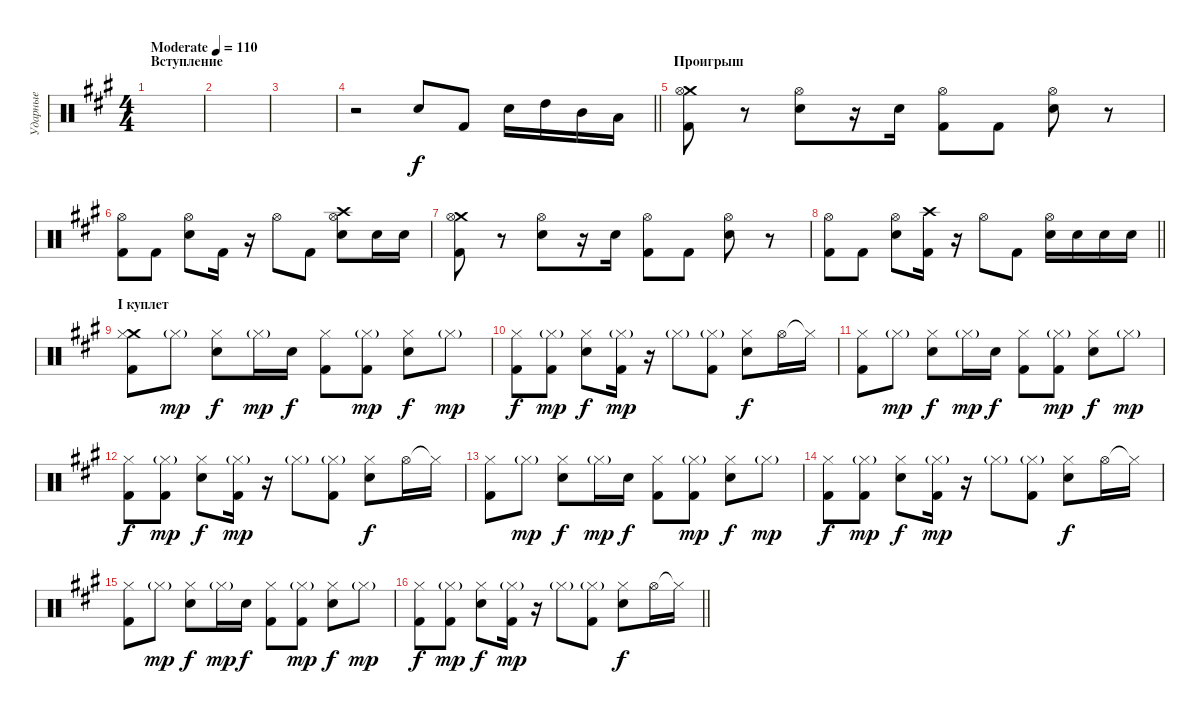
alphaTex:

\track ("Ударные" "Ударные") {instrument percussion}
\staff {score}
\articulation defaults
\ts (4 4)
\section ("" "Вступление")
\tempo (110 "Moderate")
\clef neutral
\ks f#minor
|
|
|
\barLineRight lightlight
r.2 "Electric Snare (hit)".8 "Kick (hit) 2".8 "Electric Snare (hit)".16 "High Tom (hit)".16 "Mid Tom (hit)".16 "Low Tom (hit)".16 |
\section ("" "Проигрыш")
("Crash medium (hit)" "Kick (hit) 2" "Hi-Hat (open)").8 r.8 ("Electric Snare (hit)" "Hi-Hat (open)").8 r.16 "Electric Snare (hit)".16 ("Kick (hit) 2" "Hi-Hat (open)").8 "Kick (hit) 2".8 ("Electric Snare (hit)" "Hi-Hat (open)").8 r.8 |
("Kick (hit) 2" "Hi-Hat (open)").8 "Kick (hit) 2".8 ("Electric Snare (hit)" "Hi-Hat (open)").8 "Kick (hit) 2".16 r.16 "Hi-Hat (open)".8 "Kick (hit) 2".8 ("Crash high (hit)" "Electric Snare (hit)" "Hi-Hat (open)").8 "Electric Snare (hit)".16 "Electric Snare (hit)".16 |
("Crash medium (hit)" "Kick (hit) 2" "Hi-Hat (open)").8 r.8 ("Electric Snare (hit)" "Hi-Hat (open)").8 r.16 "Electric Snare (hit)".16 ("Kick (hit) 2" "Hi-Hat (open)").8 "Kick (hit) 2".8 ("Electric Snare (hit)" "Hi-Hat (open)").8 r.8 |
\barLineRight lightlight
("Kick (hit) 2" "Hi-Hat (open)").8 "Kick (hit) 2".8 ("Electric Snare (hit)" "Hi-Hat (open)").8 ("Crash high (hit)" "Kick (hit) 2").16 r.16 "Hi-Hat (open)".8 "Kick (hit) 2".8 ("Electric Snare (hit)" "Hi-Hat (open)").16 "Electric Snare (hit)".16 "Electric Snare (hit)".16 "Electric Snare (hit)".16 |
\section ("" "I куплет")
("Crash medium (hit)" "Kick (hit) 2" "Hi-Hat (closed)").8 "Hi-Hat (closed)"{g}.8{dy mp} ("Electric Snare (hit)" "Hi-Hat (closed)").8{dy f} "Hi-Hat (closed)"{g}.16{dy mp} "Electric Snare (hit)".16{dy f} ("Kick (hit) 2" "Hi-Hat (closed)").8 ("Kick (hit) 2" "Hi-Hat (closed)"{g}).8{dy mp} ("Electric Snare (hit)" "Hi-Hat (closed)").8{dy f} "Hi-Hat (closed)"{g}.8{dy mp} |
("Kick (hit) 2" "Hi-Hat (closed)").8{dy f} ("Kick (hit) 2" "Hi-Hat (closed)"{g}).8{dy mp} ("Electric Snare (hit)" "Hi-Hat (closed)").8{dy f} ("Kick (hit) 2" "Hi-Hat (closed)"{g}).16{dy mp} r.16 "Hi-Hat (closed)"{g}.8 ("Kick (hit) 2" "Hi-Hat (closed)"{g}).8 ("Electric Snare (hit)" "Hi-Hat (closed)").8{dy f} "Hi-Hat (open)".16 "Hi-Hat (closed)"{t}.16 |
("Kick (hit) 2" "Hi-Hat (closed)").8 "Hi-Hat (closed)"{g}.8{dy mp} ("Electric Snare (hit)" "Hi-Hat (closed)").8{dy f} "Hi-Hat (closed)"{g}.16{dy mp} "Electric Snare (hit)".16{dy f} ("Kick (hit) 2" "Hi-Hat (closed)").8 ("Kick (hit) 2" "Hi-Hat (closed)"{g}).8{dy mp} ("Electric Snare (hit)" "Hi-Hat (closed)").8{dy f} "Hi-Hat (closed)"{g}.8{dy mp} |
("Kick (hit) 2" "Hi-Hat (closed)").8{dy f} ("Kick (hit) 2" "Hi-Hat (closed)"{g}).8{dy mp} ("Electric Snare (hit)" "Hi-Hat (closed)").8{dy f} ("Kick (hit) 2" "Hi-Hat (closed)"{g}).16{dy mp} r.16 "Hi-Hat (closed)"{g}.8 ("Kick (hit) 2" "Hi-Hat (closed)"{g}).8 ("Electric Snare (hit)" "Hi-Hat (closed)").8{dy f} "Hi-Hat (open)".16 "Hi-Hat (closed)"{t}.16 |
("Kick (hit) 2" "Hi-Hat (closed)").8 "Hi-Hat (closed)"{g}.8{dy mp} ("Electric Snare (hit)" "Hi-Hat (closed)").8{dy f} "Hi-Hat (closed)"{g}.16{dy mp} "Electric Snare (hit)".16{dy f} ("Kick (hit) 2" "Hi-Hat (closed)").8 ("Kick (hit) 2" "Hi-Hat (closed)"{g}).8{dy mp} ("Electric Snare (hit)" "Hi-Hat (closed)").8{dy f} "Hi-Hat (closed)"{g}.8{dy mp} |
("Kick (hit) 2" "Hi-Hat (closed)").8{dy f} ("Kick (hit) 2" "Hi-Hat (closed)"{g}).8{dy mp} ("Electric Snare (hit)" "Hi-Hat (closed)").8{dy f} ("Kick (hit) 2" "Hi-Hat (closed)"{g}).16{dy mp} r.16 "Hi-Hat (closed)"{g}.8 ("Kick (hit) 2" "Hi-Hat (closed)"{g}).8 ("Electric Snare (hit)" "Hi-Hat (closed)").8{dy f} "Hi-Hat (open)".16 "Hi-Hat (closed)"{t}.16 |
("Kick (hit) 2" "Hi-Hat (closed)").8 "Hi-Hat (closed)"{g}.8{dy mp} ("Electric Snare (hit)" "Hi-Hat (closed)").8{dy f} "Hi-Hat (closed)"{g}.16{dy mp} "Electric Snare (hit)".16{dy f} ("Kick (hit) 2" "Hi-Hat (closed)").8 ("Kick (hit) 2" "Hi-Hat (closed)"{g}).8{dy mp} ("Electric Snare (hit)" "Hi-Hat (closed)").8{dy f} "Hi-Hat (closed)"{g}.8{dy mp} |
\barLineRight lightlight
("Kick (hit) 2" "Hi-Hat (closed)").8{dy f} ("Kick (hit) 2" "Hi-Hat (closed)"{g}).8{dy mp} ("Electric Snare (hit)" "Hi-Hat (closed)").8{dy f} ("Kick (hit) 2" "Hi-Hat (closed)"{g}).16{dy mp} r.16 "Hi-Hat (closed)"{g}.8 ("Kick (hit) 2" "Hi-Hat (closed)"{g}).8 ("Electric Snare (hit)" "Hi-Hat (closed)").8{dy f} "Hi-Hat (open)".16 "Hi-Hat (closed)"{t}.16
